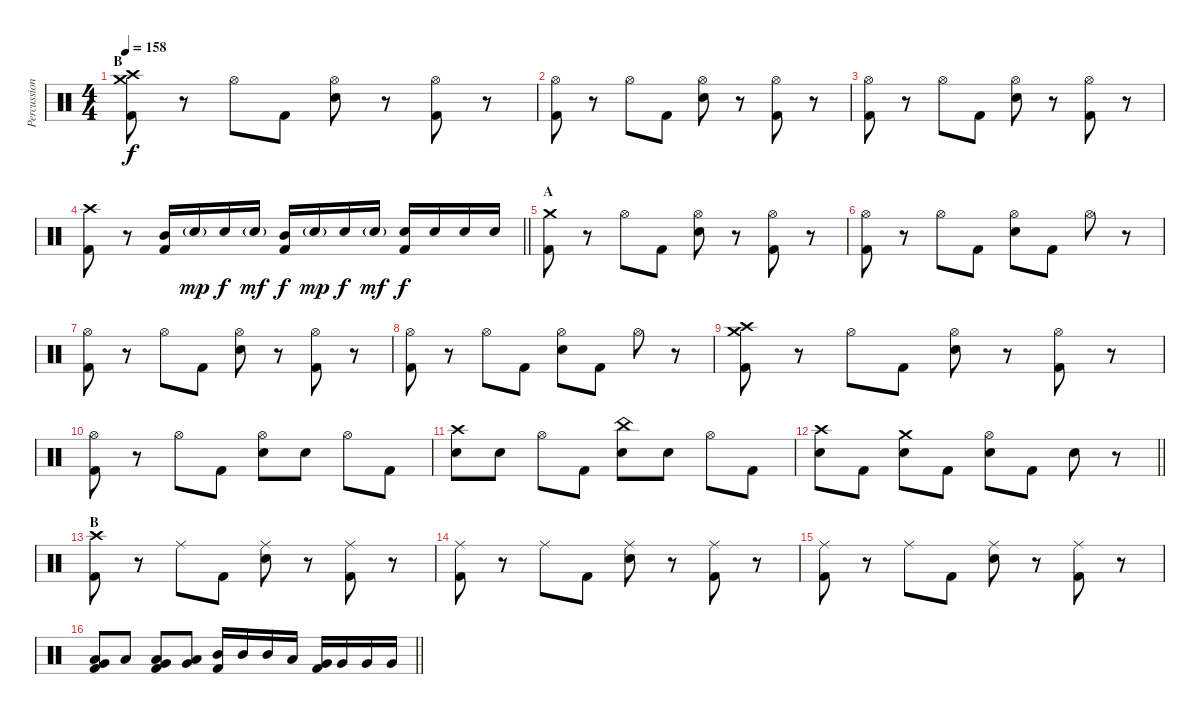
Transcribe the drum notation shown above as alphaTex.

\track ("Percussion" "Percussion") {instrument percussion}
\staff {score}
\articulation defaults
\ts (4 4)
\section ("" "B")
\tempo 158
\clef neutral
\ks c
("Crash high (hit)" "Crash medium (hit)" "Kick (hit) 2").8{dy f} r.8 "Hi-Hat (open)".8 "Kick (hit) 2".8 ("Hi-Hat (open)" "Snare (hit) 2").8 r.8 ("Hi-Hat (open)" "Kick (hit) 2").8 r.8 |
("Hi-Hat (open)" "Kick (hit) 2").8 r.8 "Hi-Hat (open)".8 "Kick (hit) 2".8 ("Hi-Hat (open)" "Snare (hit) 2").8 r.8 ("Hi-Hat (open)" "Kick (hit) 2").8 r.8 |
("Hi-Hat (open)" "Kick (hit) 2").8 r.8 "Hi-Hat (open)".8 "Kick (hit) 2".8 ("Hi-Hat (open)" "Snare (hit) 2").8 r.8 ("Hi-Hat (open)" "Kick (hit) 2").8 r.8 |
\barLineRight lightlight
("Crash high (hit)" "Kick (hit) 2").8 r.8 ("Mid Tom (hit)" "Kick (hit) 2").16 "Snare (hit) 2"{g}.16{dy mp} "Snare (hit) 2".16{dy f} "Snare (hit) 2"{g}.16{dy mf} ("Mid Tom (hit)" "Kick (hit) 2").16{dy f} "Snare (hit) 2"{g}.16{dy mp} "Snare (hit) 2".16{dy f} "Snare (hit) 2"{g}.16{dy mf} ("Snare (hit) 2" "Kick (hit) 2").16{dy f} "Snare (hit) 2".16 "Snare (hit) 2".16 "Snare (hit) 2".16 |
\section ("" "A")
("Crash medium (hit)" "Kick (hit) 2").8 r.8 "Hi-Hat (open)".8 "Kick (hit) 2".8 ("Hi-Hat (open)" "Snare (hit) 2").8 r.8 ("Hi-Hat (open)" "Kick (hit) 2").8 r.8 |
("Hi-Hat (open)" "Kick (hit) 2").8 r.8 "Hi-Hat (open)".8 "Kick (hit) 2".8 ("Hi-Hat (open)" "Snare (hit) 2").8 "Kick (hit) 2".8 "Hi-Hat (open)".8 r.8 |
("Hi-Hat (open)" "Kick (hit) 2").8 r.8 "Hi-Hat (open)".8 "Kick (hit) 2".8 ("Hi-Hat (open)" "Snare (hit) 2").8 r.8 ("Hi-Hat (open)" "Kick (hit) 2").8 r.8 |
("Hi-Hat (open)" "Kick (hit) 2").8 r.8 "Hi-Hat (open)".8 "Kick (hit) 2".8 ("Hi-Hat (open)" "Snare (hit) 2").8 "Kick (hit) 2".8 "Hi-Hat (open)".8 r.8 |
("Crash high (hit)" "Crash medium (hit)" "Kick (hit) 2").8 r.8 "Hi-Hat (open)".8 "Kick (hit) 2".8 ("Hi-Hat (open)" "Snare (hit) 2").8 r.8 ("Hi-Hat (open)" "Kick (hit) 2").8 r.8 |
("Hi-Hat (open)" "Kick (hit) 2").8 r.8 "Hi-Hat (open)".8 "Kick (hit) 2".8 ("Hi-Hat (open)" "Snare (hit) 2").8 "Snare (hit) 2".8 "Hi-Hat (open)".8 "Kick (hit) 2".8 |
("Crash high (hit)" "Snare (hit) 2").8 "Snare (hit) 2".8 "Hi-Hat (open)".8 "Kick (hit) 2".8 ("China (hit)" "Snare (hit) 2").8 "Snare (hit) 2".8 "Hi-Hat (open)".8 "Kick (hit) 2".8 |
\barLineRight lightlight
("Crash high (hit)" "Snare (hit) 2").8 "Kick (hit) 2".8 ("Crash medium (hit)" "Snare (hit) 2").8 "Kick (hit) 2".8 ("Hi-Hat (open)" "Snare (hit) 2").8 "Kick (hit) 2".8 "Snare (hit) 2".8 r.8 |
\section ("" "B")
("Crash high (hit)" "Kick (hit) 2").8 r.8 "Ride (middle)".8 "Kick (hit) 2".8 ("Ride (middle)" "Snare (hit) 2").8 r.8 ("Ride (middle)" "Kick (hit) 2").8 r.8 |
("Ride (middle)" "Kick (hit) 2").8 r.8 "Ride (middle)".8 "Kick (hit) 2".8 ("Ride (middle)" "Snare (hit) 2").8 r.8 ("Ride (middle)" "Kick (hit) 2").8 r.8 |
("Ride (middle)" "Kick (hit) 2").8 r.8 "Ride (middle)".8 "Kick (hit) 2".8 ("Ride (middle)" "Snare (hit) 2").8 r.8 ("Ride (middle)" "Kick (hit) 2").8 r.8 |
\barLineRight lightlight
("Low Tom (hit)" "Very Low Tom (hit)" "Kick (hit) 2").8 "Low Tom (hit)".8 ("Low Tom (hit)" "Very Low Tom (hit)" "Kick (hit) 2").8 ("Low Tom (hit)" "Very Low Tom (hit)").8 ("Mid Tom (hit)" "Kick (hit) 2").16 "Mid Tom (hit)".16 "Mid Tom (hit)".16 "Low Tom (hit)".16 ("Very Low Tom (hit)" "Kick (hit) 2").16 "Very Low Tom (hit)".16 "Very Low Tom (hit)".16 "Very Low Tom (hit)".16
